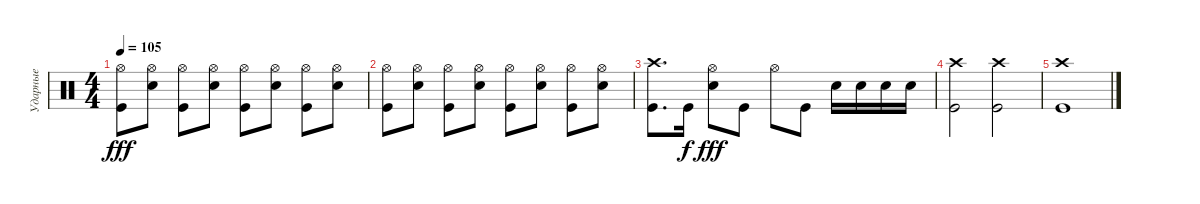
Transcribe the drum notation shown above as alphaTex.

\track ("Ударные" "Ударные") {instrument percussion}
\staff {score}
\articulation defaults
\ts (4 4)
\tempo 105
\clef neutral
\ks c
("Hi-Hat (open)" "Kick (hit)").8{dy fff} ("Electric Snare (hit)" "Hi-Hat (open)").8 ("Hi-Hat (open)" "Kick (hit)").8 ("Hi-Hat (open)" "Electric Snare (hit)").8 ("Kick (hit)" "Hi-Hat (open)").8 ("Electric Snare (hit)" "Hi-Hat (open)").8 ("Kick (hit)" "Hi-Hat (open)").8 ("Electric Snare (hit)" "Hi-Hat (open)").8 |
("Hi-Hat (open)" "Kick (hit)").8 ("Electric Snare (hit)" "Hi-Hat (open)").8 ("Hi-Hat (open)" "Kick (hit)").8 ("Hi-Hat (open)" "Electric Snare (hit)").8 ("Kick (hit)" "Hi-Hat (open)").8 ("Electric Snare (hit)" "Hi-Hat (open)").8 ("Kick (hit)" "Hi-Hat (open)").8 ("Electric Snare (hit)" "Hi-Hat (open)").8 |
("Crash high (hit)" "Kick (hit)").8{d} "Kick (hit)".16{dy f} ("Hi-Hat (open)" "Electric Snare (hit)").8{dy fff} "Kick (hit)".8 "Hi-Hat (open)".8 "Kick (hit)".8 "Electric Snare (hit)".16 "Electric Snare (hit)".16 "Electric Snare (hit)".16 "Electric Snare (hit)".16 |
("Kick (hit)" "Crash high (hit)").2 ("Kick (hit)" "Crash high (hit)").2 |
("Kick (hit)" "Crash high (hit)").1
